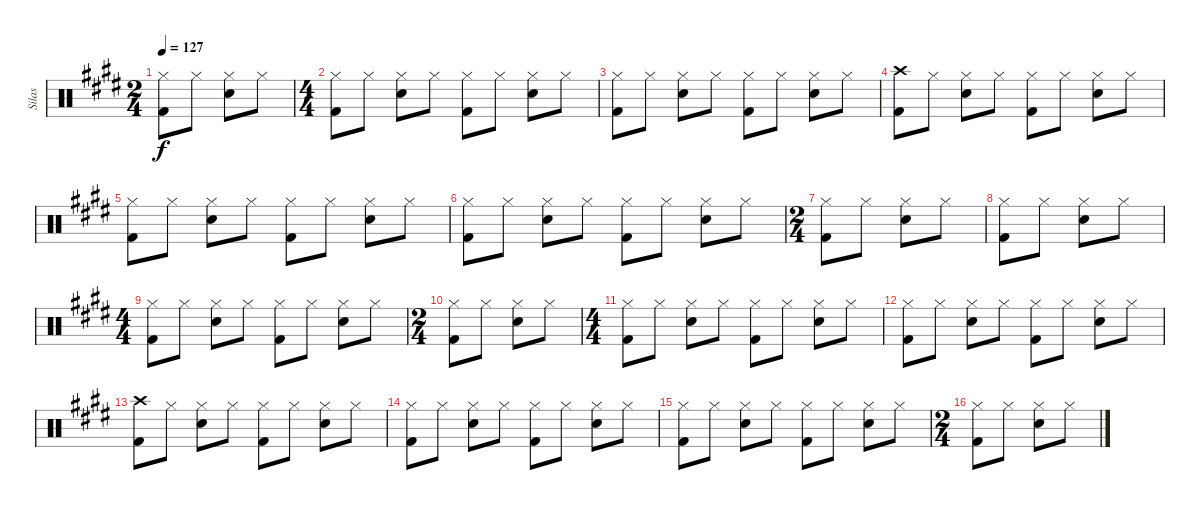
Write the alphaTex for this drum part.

\track ("Silas" "Silas") {instrument percussion}
\staff {score}
\articulation defaults
\ts (2 4)
\tempo 127
\clef neutral
\ks e
("Hi-Hat (closed)" "Kick (hit) 2").8{dy f} "Hi-Hat (closed)".8 ("Hi-Hat (closed)" "Snare (hit) 2").8 "Hi-Hat (closed)".8 |
\ts (4 4)
("Hi-Hat (closed)" "Kick (hit) 2").8 "Hi-Hat (closed)".8 ("Hi-Hat (closed)" "Snare (hit) 2").8 "Hi-Hat (closed)".8 ("Hi-Hat (closed)" "Kick (hit) 2").8 "Hi-Hat (closed)".8 ("Hi-Hat (closed)" "Snare (hit) 2").8 "Hi-Hat (closed)".8 |
("Hi-Hat (closed)" "Kick (hit) 2").8 "Hi-Hat (closed)".8 ("Hi-Hat (closed)" "Snare (hit) 2").8 "Hi-Hat (closed)".8 ("Hi-Hat (closed)" "Kick (hit) 2").8 "Hi-Hat (closed)".8 ("Hi-Hat (closed)" "Snare (hit) 2").8 "Hi-Hat (closed)".8 |
("Crash high (hit)" "Kick (hit) 2").8 "Hi-Hat (closed)".8 ("Hi-Hat (closed)" "Snare (hit) 2").8 "Hi-Hat (closed)".8 ("Hi-Hat (closed)" "Kick (hit) 2").8 "Hi-Hat (closed)".8 ("Hi-Hat (closed)" "Snare (hit) 2").8 "Hi-Hat (closed)".8 |
("Hi-Hat (closed)" "Kick (hit) 2").8 "Hi-Hat (closed)".8 ("Hi-Hat (closed)" "Snare (hit) 2").8 "Hi-Hat (closed)".8 ("Hi-Hat (closed)" "Kick (hit) 2").8 "Hi-Hat (closed)".8 ("Hi-Hat (closed)" "Snare (hit) 2").8 "Hi-Hat (closed)".8 |
("Hi-Hat (closed)" "Kick (hit) 2").8 "Hi-Hat (closed)".8 ("Hi-Hat (closed)" "Snare (hit) 2").8 "Hi-Hat (closed)".8 ("Hi-Hat (closed)" "Kick (hit) 2").8 "Hi-Hat (closed)".8 ("Hi-Hat (closed)" "Snare (hit) 2").8 "Hi-Hat (closed)".8 |
\ts (2 4)
("Hi-Hat (closed)" "Kick (hit) 2").8 "Hi-Hat (closed)".8 ("Hi-Hat (closed)" "Snare (hit) 2").8 "Hi-Hat (closed)".8 |
("Hi-Hat (closed)" "Kick (hit) 2").8 "Hi-Hat (closed)".8 ("Hi-Hat (closed)" "Snare (hit) 2").8 "Hi-Hat (closed)".8 |
\ts (4 4)
("Hi-Hat (closed)" "Kick (hit) 2").8 "Hi-Hat (closed)".8 ("Hi-Hat (closed)" "Snare (hit) 2").8 "Hi-Hat (closed)".8 ("Hi-Hat (closed)" "Kick (hit) 2").8 "Hi-Hat (closed)".8 ("Hi-Hat (closed)" "Snare (hit) 2").8 "Hi-Hat (closed)".8 |
\ts (2 4)
("Hi-Hat (closed)" "Kick (hit) 2").8 "Hi-Hat (closed)".8 ("Hi-Hat (closed)" "Snare (hit) 2").8 "Hi-Hat (closed)".8 |
\ts (4 4)
("Hi-Hat (closed)" "Kick (hit) 2").8 "Hi-Hat (closed)".8 ("Hi-Hat (closed)" "Snare (hit) 2").8 "Hi-Hat (closed)".8 ("Hi-Hat (closed)" "Kick (hit) 2").8 "Hi-Hat (closed)".8 ("Hi-Hat (closed)" "Snare (hit) 2").8 "Hi-Hat (closed)".8 |
("Hi-Hat (closed)" "Kick (hit) 2").8 "Hi-Hat (closed)".8 ("Hi-Hat (closed)" "Snare (hit) 2").8 "Hi-Hat (closed)".8 ("Hi-Hat (closed)" "Kick (hit) 2").8 "Hi-Hat (closed)".8 ("Hi-Hat (closed)" "Snare (hit) 2").8 "Hi-Hat (closed)".8 |
("Crash high (hit)" "Kick (hit) 2").8 "Hi-Hat (closed)".8 ("Hi-Hat (closed)" "Snare (hit) 2").8 "Hi-Hat (closed)".8 ("Hi-Hat (closed)" "Kick (hit) 2").8 "Hi-Hat (closed)".8 ("Hi-Hat (closed)" "Snare (hit) 2").8 "Hi-Hat (closed)".8 |
("Hi-Hat (closed)" "Kick (hit) 2").8 "Hi-Hat (closed)".8 ("Hi-Hat (closed)" "Snare (hit) 2").8 "Hi-Hat (closed)".8 ("Hi-Hat (closed)" "Kick (hit) 2").8 "Hi-Hat (closed)".8 ("Hi-Hat (closed)" "Snare (hit) 2").8 "Hi-Hat (closed)".8 |
("Hi-Hat (closed)" "Kick (hit) 2").8 "Hi-Hat (closed)".8 ("Hi-Hat (closed)" "Snare (hit) 2").8 "Hi-Hat (closed)".8 ("Hi-Hat (closed)" "Kick (hit) 2").8 "Hi-Hat (closed)".8 ("Hi-Hat (closed)" "Snare (hit) 2").8 "Hi-Hat (closed)".8 |
\ts (2 4)
("Hi-Hat (closed)" "Kick (hit) 2").8 "Hi-Hat (closed)".8 ("Hi-Hat (closed)" "Snare (hit) 2").8 "Hi-Hat (closed)".8
